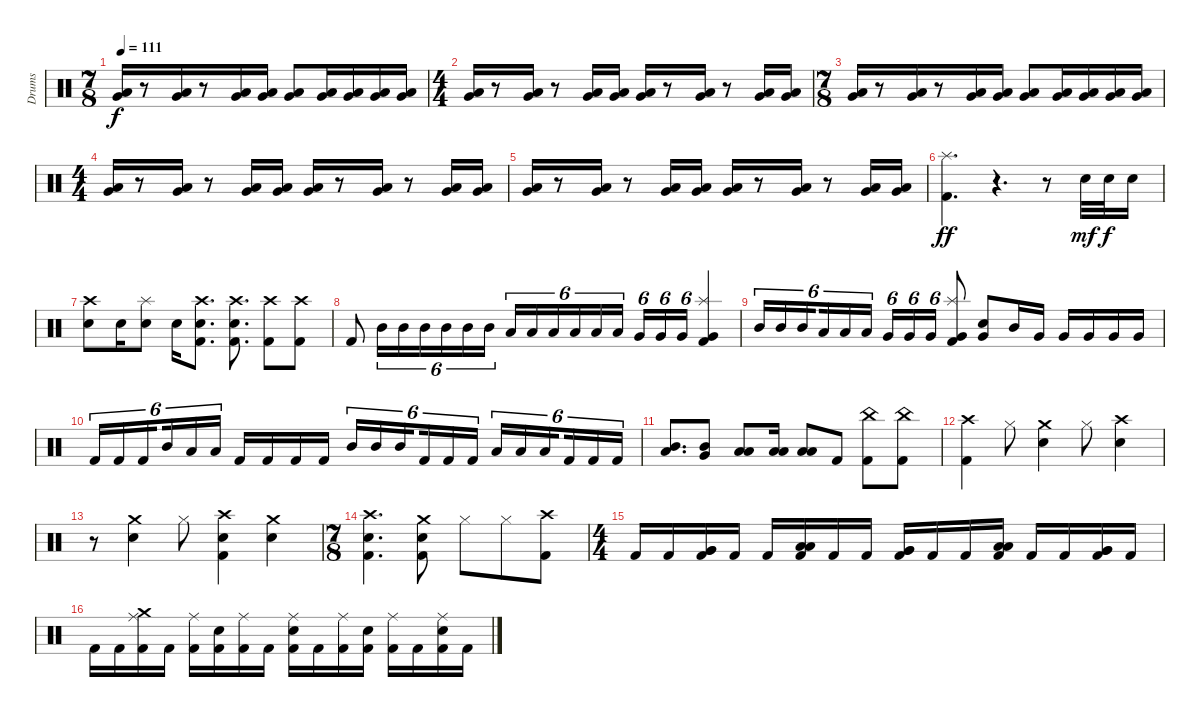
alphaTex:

\track ("Drums" "Drums") {instrument percussion}
\staff {score}
\articulation defaults
\ts (7 8)
\tempo 111
\clef neutral
\ks c
("Low Tom (hit)" "Very Low Tom (hit)").16{dy f} r.8 ("Low Tom (hit)" "Very Low Tom (hit)").16 r.8 ("Low Tom (hit)" "Very Low Tom (hit)").16 ("Low Tom (hit)" "Very Low Tom (hit)").16 ("Low Tom (hit)" "Very Low Tom (hit)").8 ("Low Tom (hit)" "Very Low Tom (hit)").16 ("Low Tom (hit)" "Very Low Tom (hit)").16 ("Low Tom (hit)" "Very Low Tom (hit)").16 ("Low Tom (hit)" "Very Low Tom (hit)").16 |
\ts (4 4)
("Low Tom (hit)" "Very Low Tom (hit)").16 r.8 ("Low Tom (hit)" "Very Low Tom (hit)").16 r.8 ("Low Tom (hit)" "Very Low Tom (hit)").16 ("Low Tom (hit)" "Very Low Tom (hit)").16 ("Low Tom (hit)" "Very Low Tom (hit)").16 r.8 ("Low Tom (hit)" "Very Low Tom (hit)").16 r.8 ("Low Tom (hit)" "Very Low Tom (hit)").16 ("Low Tom (hit)" "Very Low Tom (hit)").16 |
\ts (7 8)
("Low Tom (hit)" "Very Low Tom (hit)").16 r.8 ("Low Tom (hit)" "Very Low Tom (hit)").16 r.8 ("Low Tom (hit)" "Very Low Tom (hit)").16 ("Low Tom (hit)" "Very Low Tom (hit)").16 ("Low Tom (hit)" "Very Low Tom (hit)").8 ("Low Tom (hit)" "Very Low Tom (hit)").16 ("Low Tom (hit)" "Very Low Tom (hit)").16 ("Low Tom (hit)" "Very Low Tom (hit)").16 ("Low Tom (hit)" "Very Low Tom (hit)").16 |
\ts (4 4)
("Low Tom (hit)" "Very Low Tom (hit)").16 r.8 ("Low Tom (hit)" "Very Low Tom (hit)").16 r.8 ("Low Tom (hit)" "Very Low Tom (hit)").16 ("Low Tom (hit)" "Very Low Tom (hit)").16 ("Low Tom (hit)" "Very Low Tom (hit)").16 r.8 ("Low Tom (hit)" "Very Low Tom (hit)").16 r.8 ("Low Tom (hit)" "Very Low Tom (hit)").16 ("Low Tom (hit)" "Very Low Tom (hit)").16 |
("Low Tom (hit)" "Very Low Tom (hit)").16 r.8 ("Low Tom (hit)" "Very Low Tom (hit)").16 r.8 ("Low Tom (hit)" "Very Low Tom (hit)").16 ("Low Tom (hit)" "Very Low Tom (hit)").16 ("Low Tom (hit)" "Very Low Tom (hit)").16 r.8 ("Low Tom (hit)" "Very Low Tom (hit)").16 r.8 ("Low Tom (hit)" "Very Low Tom (hit)").16 ("Low Tom (hit)" "Very Low Tom (hit)").16 |
("Splash (hit)" "Kick (hit) 2").4{d dy ff} r.4{d} r.8 "Snare (hit) 2".32{dy mf} "Snare (hit) 2".32{dy f} "Snare (hit) 2".16 |
("Crash high (hit)" "Snare (hit) 2").8 "Snare (hit) 2".16 ("Splash (hit)" "Snare (hit) 2").8 "Snare (hit) 2".16 ("Crash high (hit)" "Snare (hit) 2" "Kick (hit) 2").8{d} ("Crash high (hit)" "Snare (hit) 2" "Kick (hit) 2").8{d} ("Crash high (hit)" "Kick (hit) 2").8 ("Crash high (hit)" "Kick (hit) 2").8 |
"Kick (hit) 2".8 "Mid Tom (hit)".16{tu (6 4)} "Mid Tom (hit)".16{tu (6 4)} "Mid Tom (hit)".16{tu (6 4)} "Mid Tom (hit)".16{tu (6 4)} "Mid Tom (hit)".16{tu (6 4)} "Mid Tom (hit)".16{tu (6 4) beam splitsecondary} "Low Tom (hit)".16{tu (6 4)} "Low Tom (hit)".16{tu (6 4)} "Low Tom (hit)".16{tu (6 4)} "Low Tom (hit)".16{tu (6 4)} "Low Tom (hit)".16{tu (6 4)} "Low Tom (hit)".16{tu (6 4) beam splitsecondary} "Very Low Tom (hit)".16{tu (6 4)} "Very Low Tom (hit)".16{tu (6 4)} "Very Low Tom (hit)".16{tu (6 4)} ("Splash (hit)" "Very Low Tom (hit)" "Kick (hit) 2").4 |
"Mid Tom (hit)".16{tu (6 4)} "Mid Tom (hit)".16{tu (6 4)} "Mid Tom (hit)".16{tu (6 4) beam splitsecondary} "Low Tom (hit)".16{tu (6 4)} "Low Tom (hit)".16{tu (6 4)} "Low Tom (hit)".16{tu (6 4)} "Very Low Tom (hit)".16{tu (6 4)} "Very Low Tom (hit)".16{tu (6 4)} "Very Low Tom (hit)".16{tu (6 4)} ("Splash (hit)" "Very Low Tom (hit)" "Kick (hit) 2").8 ("Very Low Tom (hit)" "Snare (hit) 2").8 "Mid Tom (hit)".16 "Very Low Tom (hit)".16 "Very Low Tom (hit)".16 "Very Low Tom (hit)".16 "Very Low Tom (hit)".16 "Very Low Tom (hit)".16 |
"Kick (hit) 2".16{tu (6 4)} "Kick (hit) 2".16{tu (6 4)} "Kick (hit) 2".16{tu (6 4) beam splitsecondary} "Mid Tom (hit)".16{tu (6 4)} "Low Tom (hit)".16{tu (6 4)} "Low Tom (hit)".16{tu (6 4)} "Kick (hit) 2".16 "Kick (hit) 2".16 "Kick (hit) 2".16 "Kick (hit) 2".16 "Mid Tom (hit)".16{tu (6 4)} "Mid Tom (hit)".16{tu (6 4)} "Mid Tom (hit)".16{tu (6 4) beam splitsecondary} "Kick (hit) 2".16{tu (6 4)} "Kick (hit) 2".16{tu (6 4)} "Kick (hit) 2".16{tu (6 4)} "Low Tom (hit)".16{tu (6 4)} "Low Tom (hit)".16{tu (6 4)} "Low Tom (hit)".16{tu (6 4) beam splitsecondary} "Kick (hit) 2".16{tu (6 4)} "Kick (hit) 2".16{tu (6 4)} "Kick (hit) 2".16{tu (6 4)} |
("Low Floor Tom (hit)" "Mid Tom (hit)").8{d} ("Very Low Tom (hit)" "Mid Tom (hit)").8 ("Low Floor Tom (hit)" "Low Tom (hit)").8 ("Low Floor Tom (hit)" "Low Tom (hit)").16 ("Low Floor Tom (hit)" "Low Tom (hit)").8 "Kick (hit) 2".8 ("China (hit)" "Kick (hit) 2").8 ("China (hit)" "Kick (hit) 2").8 |
("Crash high (hit)" "Kick (hit) 2").4 "Hi-Hat (closed)".8 ("Crash medium (hit)" "Snare (hit) 2").4 "Hi-Hat (closed)".8 ("Crash high (hit)" "Snare (hit) 2").4 |
r.8 ("Crash medium (hit)" "Snare (hit) 2").4 "Hi-Hat (closed)".8 ("Crash high (hit)" "Snare (hit) 2" "Kick (hit) 2").4 ("Crash medium (hit)" "Snare (hit) 2").4 |
\ts (7 8)
("Crash high (hit)" "Snare (hit) 2" "Kick (hit) 2").4{d} ("Crash medium (hit)" "Snare (hit) 2" "Kick (hit) 2").8 "Hi-Hat (closed)".8 "Hi-Hat (closed)".8 ("Crash high (hit)" "Kick (hit) 2").8 |
\ts (4 4)
"Kick (hit) 2".16 "Kick (hit) 2".16 ("Very Low Tom (hit)" "Very Low Tom (hit)" "Kick (hit) 2").16 "Kick (hit) 2".16 "Kick (hit) 2".16 ("Low Tom (hit)" "Low Tom (hit)" "Kick (hit) 2").16 "Kick (hit) 2".16 "Kick (hit) 2".16 ("Very Low Tom (hit)" "Very Low Tom (hit)" "Kick (hit) 2").16 "Kick (hit) 2".16 "Kick (hit) 2".16 ("Low Tom (hit)" "Low Tom (hit)" "Kick (hit) 2").16 "Kick (hit) 2".16 "Kick (hit) 2".16 ("Very Low Tom (hit)" "Very Low Tom (hit)" "Kick (hit) 2").16 "Kick (hit) 2".16 |
"Kick (hit) 2".16 "Kick (hit) 2".16 ("Ride (middle)" "Crash medium (hit)" "Kick (hit) 2").16 "Kick (hit) 2".16 ("Ride (middle)" "Kick (hit) 2").16 ("Snare (hit) 2" "Kick (hit) 2").16 ("Ride (middle)" "Kick (hit) 2").16 "Kick (hit) 2".16 ("Ride (middle)" "Snare (hit) 2" "Kick (hit) 2").16 "Kick (hit) 2".16 ("Ride (middle)" "Kick (hit) 2").16 ("Snare (hit) 2" "Kick (hit) 2").16 ("Ride (middle)" "Kick (hit) 2").16 "Kick (hit) 2".16 ("Ride (middle)" "Snare (hit) 2" "Kick (hit) 2").16 "Kick (hit) 2".16
